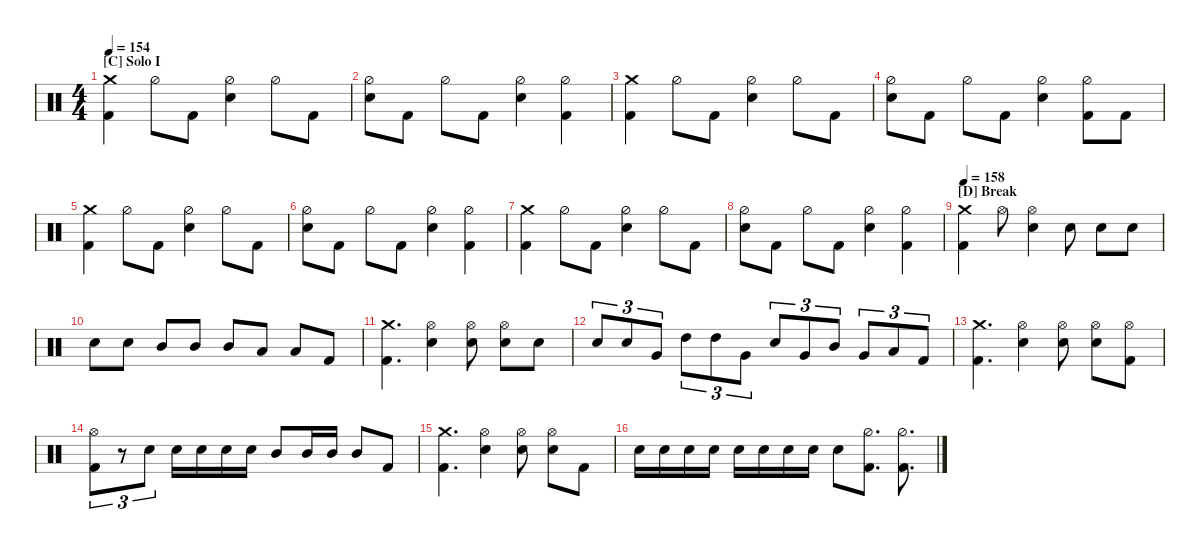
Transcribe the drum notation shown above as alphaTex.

\defaultSystemsLayout 4
\hideDynamics
\bracketExtendMode nobrackets
\singleTrackTrackNamePolicy hidden
\multiTrackTrackNamePolicy hidden
\firstSystemTrackNameMode fullname
\firstSystemTrackNameOrientation horizontal
\otherSystemsTrackNameOrientation horizontal
\track ("Drum" "Drums") {instrument percussion}
\staff {score}
\articulation defaults
\ts (4 4)
\section ("C" "Solo I")
\scale
0.230769
\tempo 154
\accidentals auto
\clef neutral
\ottava regular
\simile none
\scale
0.245614
\ks c
("Kick (hit) 2" "Crash medium (hit)").4{dy f beam Down} "Hi-Hat (half)".8{beam Down} "Kick (hit) 2".8{beam Down} ("Snare (hit) 2" "Hi-Hat (half)").4{beam Down} "Hi-Hat (half)".8{beam Down} "Kick (hit) 2".8{beam Down} |
\scale
0.215385
\scale
0.245614 ("Snare (hit) 2" "Hi-Hat (half)").8{beam Down} "Kick (hit) 2".8{beam Down} "Hi-Hat (half)".8{beam Down} "Kick (hit) 2".8{beam Down} ("Snare (hit) 2" "Hi-Hat (half)").4{beam Down} ("Kick (hit) 2" "Hi-Hat (half)").4{beam Down} |
\scale
0.215385
\scale
0.245614 ("Kick (hit) 2" "Crash medium (hit)").4{beam Down} "Hi-Hat (half)".8{beam Down} "Kick (hit) 2".8{beam Down} ("Snare (hit) 2" "Hi-Hat (half)").4{beam Down} "Hi-Hat (half)".8{beam Down} "Kick (hit) 2".8{beam Down} |
\scale
0.338462
\scale
0.263158 ("Snare (hit) 2" "Hi-Hat (half)").8{beam Down} "Kick (hit) 2".8{beam Down} "Hi-Hat (half)".8{beam Down} "Kick (hit) 2".8{beam Down} ("Snare (hit) 2" "Hi-Hat (half)").4{beam Down} ("Kick (hit) 2" "Hi-Hat (half)").8{beam Down} "Kick (hit) 2".8{beam Down} |
\scale
0.230769
\scale
0.25 ("Kick (hit) 2" "Crash medium (hit)").4{beam Down} "Hi-Hat (half)".8{beam Down} "Kick (hit) 2".8{beam Down} ("Snare (hit) 2" "Hi-Hat (half)").4{beam Down} "Hi-Hat (half)".8{beam Down} "Kick (hit) 2".8{beam Down} |
\scale
0.338462
\scale
0.25 ("Snare (hit) 2" "Hi-Hat (half)").8{beam Down} "Kick (hit) 2".8{beam Down} "Hi-Hat (half)".8{beam Down} "Kick (hit) 2".8{beam Down} ("Snare (hit) 2" "Hi-Hat (half)").4{beam Down} ("Kick (hit) 2" "Hi-Hat (half)").4{beam Down} |
\scale
0.215385
\scale
0.25 ("Kick (hit) 2" "Crash medium (hit)").4{beam Down} "Hi-Hat (half)".8{beam Down} "Kick (hit) 2".8{beam Down} ("Snare (hit) 2" "Hi-Hat (half)").4{beam Down} "Hi-Hat (half)".8{beam Down} "Kick (hit) 2".8{beam Down} |
\scale
0.215385
\scale
0.25 ("Snare (hit) 2" "Hi-Hat (half)").8{beam Down} "Kick (hit) 2".8{beam Down} "Hi-Hat (half)".8{beam Down} "Kick (hit) 2".8{beam Down} ("Snare (hit) 2" "Hi-Hat (half)").4{beam Down} ("Kick (hit) 2" "Hi-Hat (half)").4{beam Down} |
\section ("D" "Break")
\scale
0.331551
\tempo 158
\scale
0.21309 ("Kick (hit) 2" "Crash medium (hit)").4{beam Down} "Hi-Hat (open)".8{beam Down} ("Snare (hit) 2" "Hi-Hat (open)").4{beam Down} "Snare (hit) 2".8{beam Down} "Snare (hit) 2".8{beam Down} "Snare (hit) 2".8{beam Down} |
\scale
0.168449
\scale
0.243531 "Snare (hit) 2".8{beam Down} "Snare (hit) 2".8{beam Down} "Mid Tom (hit)".8{beam Up} "Mid Tom (hit)".8{beam Up} "Mid Tom (hit)".8{beam Up} "Low Tom (hit)".8{beam Up} "Low Tom (hit)".8{beam Up} "Kick (hit) 2".8{beam Up} |
\scale
0.331551
\scale
0.196347 ("Kick (hit) 2" "Crash medium (hit)").4{d beam Down} ("Snare (hit) 2" "Hi-Hat (open)").4{beam Down} ("Snare (hit) 2" "Hi-Hat (open)").8{beam Down} ("Snare (hit) 2" "Hi-Hat (open)").8{beam Down} "Snare (hit) 2".8{beam Down} |
\scale
0.168449
\scale
0.347032 "Snare (hit) 2".8{tu (3 2) beam Up} "Snare (hit) 2".8{tu (3 2) beam Up} "Very Low Tom (hit)".8{tu (3 2) beam Up} "High Tom (hit)".8{tu (3 2) beam Down} "High Tom (hit)".8{tu (3 2) beam Down} "Very Low Tom (hit)".8{tu (3 2) beam Down} "Snare (hit) 2".8{tu (3 2) beam Up} "Very Low Tom (hit)".8{tu (3 2) beam Up} "Mid Tom (hit)".8{tu (3 2) beam Up} "Very Low Tom (hit)".8{tu (3 2) beam Up} "Low Tom (hit)".8{tu (3 2) beam Up} "Kick (hit) 2".8{tu (3 2) beam Up} |
\scale
0.258873
\scale
0.191395 ("Kick (hit) 2" "Crash medium (hit)").4{d beam Down} ("Snare (hit) 2" "Hi-Hat (open)").4{beam Down} ("Snare (hit) 2" "Hi-Hat (open)").8{beam Down} ("Snare (hit) 2" "Hi-Hat (open)").8{beam Down} ("Kick (hit) 2" "Hi-Hat (open)").8{beam Down} |
\scale
0.131524
\scale
0.316024 ("Kick (hit) 2" "Hi-Hat (open)").8{tu (3 2) beam Down} r.8{tu (3 2) beam Down} "Snare (hit) 2".8{tu (3 2) beam Down} "Snare (hit) 2".16{beam Down} "Snare (hit) 2".16{beam Down} "Snare (hit) 2".16{beam Down} "Snare (hit) 2".16{beam Down} "Mid Tom (hit)".8{beam Up} "Mid Tom (hit)".16{beam Up} "Mid Tom (hit)".16{beam Up} "Mid Tom (hit)".8{beam Up} "Kick (hit) 2".8{beam Up} |
\scale
0.258873
\scale
0.191395 ("Kick (hit) 2" "Crash medium (hit)").4{d beam Down} ("Snare (hit) 2" "Hi-Hat (open)").4{beam Down} ("Snare (hit) 2" "Hi-Hat (open)").8{beam Down} ("Snare (hit) 2" "Hi-Hat (open)").8{beam Down} "Kick (hit) 2".8{beam Down} |
\scale
0.350731
\scale
0.301187 "Snare (hit) 2".16{beam Down} "Snare (hit) 2".16{beam Down} "Snare (hit) 2".16{beam Down} "Snare (hit) 2".16{beam Down} "Snare (hit) 2".16{beam Down} "Snare (hit) 2".16{beam Down} "Snare (hit) 2".16{beam Down} "Snare (hit) 2".16{beam Down} "Snare (hit) 2".8{beam Down} ("Kick (hit) 2" "Hi-Hat (half)").8{d beam Down} ("Kick (hit) 2" "Hi-Hat (half)").8{d beam Down}
